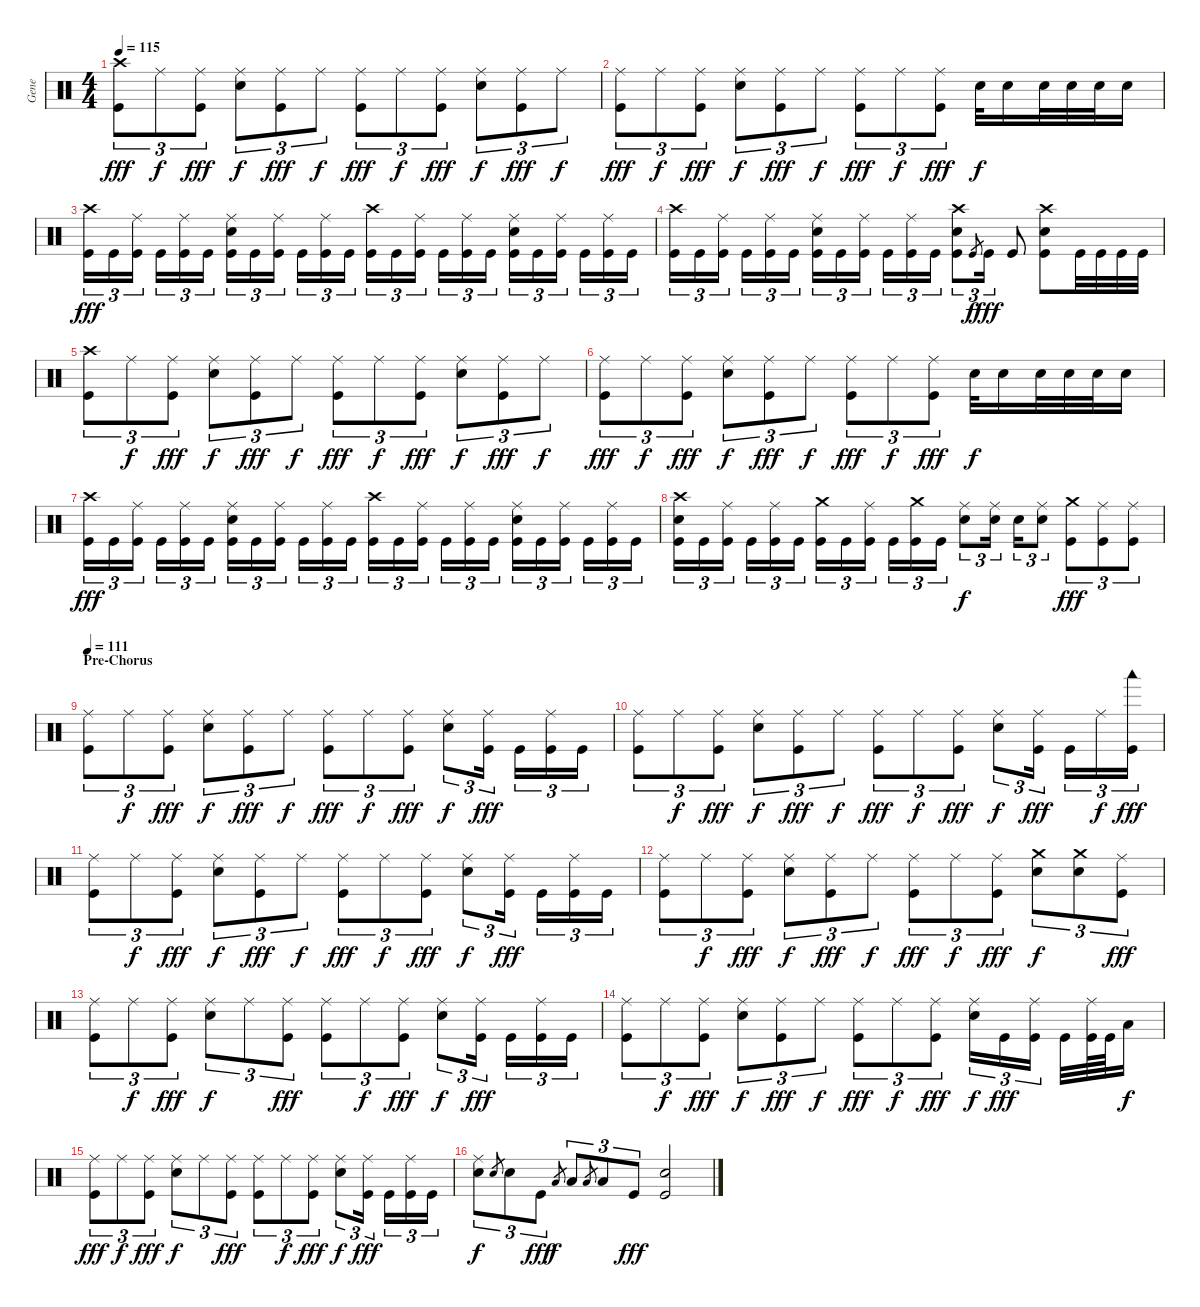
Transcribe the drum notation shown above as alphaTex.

\track ("Gene" "Gene") {instrument percussion}
\staff {score}
\articulation defaults
\ts (4 4)
\tempo 115
\clef neutral
\ks c
("Crash high (hit)" "Kick (hit)").8{tu (3 2) dy fff} "Ride (middle)".8{tu (3 2) dy f} ("Ride (middle)" "Kick (hit)").8{tu (3 2) dy fff} ("Ride (middle)" "Snare (hit) 2").8{tu (3 2) dy f} ("Ride (middle)" "Kick (hit)").8{tu (3 2) dy fff} "Ride (middle)".8{tu (3 2) dy f} ("Ride (middle)" "Kick (hit)").8{tu (3 2) dy fff} "Ride (middle)".8{tu (3 2) dy f} ("Ride (middle)" "Kick (hit)").8{tu (3 2) dy fff} ("Ride (middle)" "Snare (hit) 2").8{tu (3 2) dy f} ("Ride (middle)" "Kick (hit)").8{tu (3 2) dy fff} "Ride (middle)".8{tu (3 2) dy f} |
("Ride (middle)" "Kick (hit)").8{tu (3 2) dy fff} "Ride (middle)".8{tu (3 2) dy f} ("Ride (middle)" "Kick (hit)").8{tu (3 2) dy fff} ("Ride (middle)" "Snare (hit) 2").8{tu (3 2) dy f} ("Ride (middle)" "Kick (hit)").8{tu (3 2) dy fff} "Ride (middle)".8{tu (3 2) dy f} ("Ride (middle)" "Kick (hit)").8{tu (3 2) dy fff} "Ride (middle)".8{tu (3 2) dy f} ("Ride (middle)" "Kick (hit)").8{tu (3 2) dy fff} "Snare (hit) 2".32{dy f} "Snare (hit) 2".16 "Snare (hit) 2".32 "Snare (hit) 2".32 "Snare (hit) 2".32 "Snare (hit) 2".16 |
("Crash high (hit)" "Kick (hit)").16{tu (3 2) dy fff} "Kick (hit)".16{tu (3 2)} ("Ride (middle)" "Kick (hit)").16{tu (3 2)} "Kick (hit)".16{tu (3 2)} ("Ride (middle)" "Kick (hit)").16{tu (3 2)} "Kick (hit)".16{tu (3 2)} ("Ride (middle)" "Snare (hit) 2" "Kick (hit)").16{tu (3 2)} "Kick (hit)".16{tu (3 2)} ("Ride (middle)" "Kick (hit)").16{tu (3 2)} "Kick (hit)".16{tu (3 2)} ("Ride (middle)" "Kick (hit)").16{tu (3 2)} "Kick (hit)".16{tu (3 2)} ("Crash high (hit)" "Kick (hit)").16{tu (3 2)} "Kick (hit)".16{tu (3 2)} ("Ride (middle)" "Kick (hit)").16{tu (3 2)} "Kick (hit)".16{tu (3 2)} ("Ride (middle)" "Kick (hit)").16{tu (3 2)} "Kick (hit)".16{tu (3 2)} ("Ride (middle)" "Snare (hit) 2" "Kick (hit)").16{tu (3 2)} "Kick (hit)".16{tu (3 2)} ("Ride (middle)" "Kick (hit)").16{tu (3 2)} "Kick (hit)".16{tu (3 2)} ("Ride (middle)" "Kick (hit)").16{tu (3 2)} "Kick (hit)".16{tu (3 2)} |
("Crash high (hit)" "Kick (hit)").16{tu (3 2)} "Kick (hit)".16{tu (3 2)} ("Ride (middle)" "Kick (hit)").16{tu (3 2)} "Kick (hit)".16{tu (3 2)} ("Ride (middle)" "Kick (hit)").16{tu (3 2)} "Kick (hit)".16{tu (3 2)} ("Ride (middle)" "Snare (hit) 2" "Kick (hit)").16{tu (3 2)} "Kick (hit)".16{tu (3 2)} ("Ride (middle)" "Kick (hit)").16{tu (3 2)} "Kick (hit)".16{tu (3 2)} ("Ride (middle)" "Kick (hit)").16{tu (3 2)} "Kick (hit)".16{tu (3 2)} ("Crash high (hit)" "Snare (hit) 2" "Kick (hit)").8{tu (3 2)} "Kick (hit)".8{gr dy f} "Kick (hit)".16{tu (3 2) dy fff} "Kick (hit)".8 ("Crash high (hit)" "Snare (hit) 2" "Kick (hit)").8 "Kick (hit)".32 "Kick (hit)".32 "Kick (hit)".32 "Kick (hit)".32 |
("Crash high (hit)" "Kick (hit)").8{tu (3 2)} "Ride (middle)".8{tu (3 2) dy f} ("Ride (middle)" "Kick (hit)").8{tu (3 2) dy fff} ("Ride (middle)" "Snare (hit) 2").8{tu (3 2) dy f} ("Ride (middle)" "Kick (hit)").8{tu (3 2) dy fff} "Ride (middle)".8{tu (3 2) dy f} ("Ride (middle)" "Kick (hit)").8{tu (3 2) dy fff} "Ride (middle)".8{tu (3 2) dy f} ("Ride (middle)" "Kick (hit)").8{tu (3 2) dy fff} ("Ride (middle)" "Snare (hit) 2").8{tu (3 2) dy f} ("Ride (middle)" "Kick (hit)").8{tu (3 2) dy fff} "Ride (middle)".8{tu (3 2) dy f} |
("Ride (middle)" "Kick (hit)").8{tu (3 2) dy fff} "Ride (middle)".8{tu (3 2) dy f} ("Ride (middle)" "Kick (hit)").8{tu (3 2) dy fff} ("Ride (middle)" "Snare (hit) 2").8{tu (3 2) dy f} ("Ride (middle)" "Kick (hit)").8{tu (3 2) dy fff} "Ride (middle)".8{tu (3 2) dy f} ("Ride (middle)" "Kick (hit)").8{tu (3 2) dy fff} "Ride (middle)".8{tu (3 2) dy f} ("Ride (middle)" "Kick (hit)").8{tu (3 2) dy fff} "Snare (hit) 2".32{dy f} "Snare (hit) 2".16 "Snare (hit) 2".32 "Snare (hit) 2".32 "Snare (hit) 2".32 "Snare (hit) 2".16 |
("Crash high (hit)" "Kick (hit)").16{tu (3 2) dy fff} "Kick (hit)".16{tu (3 2)} ("Ride (middle)" "Kick (hit)").16{tu (3 2)} "Kick (hit)".16{tu (3 2)} ("Ride (middle)" "Kick (hit)").16{tu (3 2)} "Kick (hit)".16{tu (3 2)} ("Ride (middle)" "Snare (hit) 2" "Kick (hit)").16{tu (3 2)} "Kick (hit)".16{tu (3 2)} ("Ride (middle)" "Kick (hit)").16{tu (3 2)} "Kick (hit)".16{tu (3 2)} ("Ride (middle)" "Kick (hit)").16{tu (3 2)} "Kick (hit)".16{tu (3 2)} ("Crash high (hit)" "Kick (hit)").16{tu (3 2)} "Kick (hit)".16{tu (3 2)} ("Ride (middle)" "Kick (hit)").16{tu (3 2)} "Kick (hit)".16{tu (3 2)} ("Ride (middle)" "Kick (hit)").16{tu (3 2)} "Kick (hit)".16{tu (3 2)} ("Ride (middle)" "Snare (hit) 2" "Kick (hit)").16{tu (3 2)} "Kick (hit)".16{tu (3 2)} ("Ride (middle)" "Kick (hit)").16{tu (3 2)} "Kick (hit)".16{tu (3 2)} ("Ride (middle)" "Kick (hit)").16{tu (3 2)} "Kick (hit)".16{tu (3 2)} |
("Crash high (hit)" "Snare (hit) 2" "Kick (hit)").16{tu (3 2)} "Kick (hit)".16{tu (3 2)} ("Ride (middle)" "Kick (hit)").16{tu (3 2)} "Kick (hit)".16{tu (3 2)} ("Ride (middle)" "Kick (hit)").16{tu (3 2)} "Kick (hit)".16{tu (3 2)} ("Crash medium (hit)" "Kick (hit)").16{tu (3 2)} "Kick (hit)".16{tu (3 2)} ("Ride (middle)" "Kick (hit)").16{tu (3 2)} "Kick (hit)".16{tu (3 2)} ("Crash medium (hit)" "Kick (hit)").16{tu (3 2)} "Kick (hit)".16{tu (3 2)} ("Ride (middle)" "Snare (hit) 2").8{tu (3 2) dy f} ("Ride (middle)" "Snare (hit) 2").16{tu (3 2)} "Snare (hit) 2".16{tu (3 2)} ("Ride (middle)" "Snare (hit) 2").8{tu (3 2)} ("Crash medium (hit)" "Kick (hit)").8{tu (3 2) dy fff} ("Ride (middle)" "Kick (hit)").8{tu (3 2)} ("Ride (middle)" "Kick (hit)").8{tu (3 2)} |
\section ("" "Pre-Chorus")
\tempo 111
("Ride (middle)" "Kick (hit)").8{tu (3 2)} "Ride (middle)".8{tu (3 2) dy f} ("Ride (middle)" "Kick (hit)").8{tu (3 2) dy fff} ("Ride (middle)" "Snare (hit) 2").8{tu (3 2) dy f} ("Ride (middle)" "Kick (hit)").8{tu (3 2) dy fff} "Ride (middle)".8{tu (3 2) dy f} ("Ride (middle)" "Kick (hit)").8{tu (3 2) dy fff} "Ride (middle)".8{tu (3 2) dy f} ("Ride (middle)" "Kick (hit)").8{tu (3 2) dy fff} ("Ride (middle)" "Snare (hit) 2").8{tu (3 2) dy f} ("Ride (middle)" "Kick (hit)").16{tu (3 2) dy fff} "Kick (hit)".16{tu (3 2)} ("Ride (middle)" "Kick (hit)").16{tu (3 2)} "Kick (hit)".16{tu (3 2)} |
("Ride (middle)" "Kick (hit)").8{tu (3 2)} "Ride (middle)".8{tu (3 2) dy f} ("Ride (middle)" "Kick (hit)").8{tu (3 2) dy fff} ("Ride (middle)" "Snare (hit) 2").8{tu (3 2) dy f} ("Ride (middle)" "Kick (hit)").8{tu (3 2) dy fff} "Ride (middle)".8{tu (3 2) dy f} ("Ride (middle)" "Kick (hit)").8{tu (3 2) dy fff} "Ride (middle)".8{tu (3 2) dy f} ("Ride (middle)" "Kick (hit)").8{tu (3 2) dy fff} ("Ride (middle)" "Snare (hit) 2").8{tu (3 2) dy f} ("Ride (middle)" "Kick (hit)").16{tu (3 2) dy fff} "Kick (hit)".16{tu (3 2)} "Ride (middle)".16{tu (3 2) dy f} ("Woodblock low (hit)" "Kick (hit)").16{tu (3 2) dy fff} |
("Ride (middle)" "Kick (hit)").8{tu (3 2)} "Ride (middle)".8{tu (3 2) dy f} ("Ride (middle)" "Kick (hit)").8{tu (3 2) dy fff} ("Ride (middle)" "Snare (hit) 2").8{tu (3 2) dy f} ("Ride (middle)" "Kick (hit)").8{tu (3 2) dy fff} "Ride (middle)".8{tu (3 2) dy f} ("Ride (middle)" "Kick (hit)").8{tu (3 2) dy fff} "Ride (middle)".8{tu (3 2) dy f} ("Ride (middle)" "Kick (hit)").8{tu (3 2) dy fff} ("Ride (middle)" "Snare (hit) 2").8{tu (3 2) dy f} ("Ride (middle)" "Kick (hit)").16{tu (3 2) dy fff} "Kick (hit)".16{tu (3 2)} ("Ride (middle)" "Kick (hit)").16{tu (3 2)} "Kick (hit)".16{tu (3 2)} |
("Ride (middle)" "Kick (hit)").8{tu (3 2)} "Ride (middle)".8{tu (3 2) dy f} ("Ride (middle)" "Kick (hit)").8{tu (3 2) dy fff} ("Ride (middle)" "Snare (hit) 2").8{tu (3 2) dy f} ("Ride (middle)" "Kick (hit)").8{tu (3 2) dy fff} "Ride (middle)".8{tu (3 2) dy f} ("Ride (middle)" "Kick (hit)").8{tu (3 2) dy fff} "Ride (middle)".8{tu (3 2) dy f} ("Ride (middle)" "Kick (hit)").8{tu (3 2) dy fff} ("Crash medium (hit)" "Snare (hit) 2").8{tu (3 2) dy f} ("Crash medium (hit)" "Snare (hit) 2").8{tu (3 2)} ("Ride (middle)" "Kick (hit)").8{tu (3 2) dy fff} |
("Ride (middle)" "Kick (hit)").8{tu (3 2)} "Ride (middle)".8{tu (3 2) dy f} ("Ride (middle)" "Kick (hit)").8{tu (3 2) dy fff} ("Ride (middle)" "Snare (hit) 2").8{tu (3 2) dy f} "Ride (middle)".8{tu (3 2)} ("Ride (middle)" "Kick (hit)").8{tu (3 2) dy fff} ("Ride (middle)" "Kick (hit)").8{tu (3 2)} "Ride (middle)".8{tu (3 2) dy f} ("Ride (middle)" "Kick (hit)").8{tu (3 2) dy fff} ("Ride (middle)" "Snare (hit) 2").8{tu (3 2) dy f} ("Ride (middle)" "Kick (hit)").16{tu (3 2) dy fff} "Kick (hit)".16{tu (3 2)} ("Ride (middle)" "Kick (hit)").16{tu (3 2)} "Kick (hit)".16{tu (3 2)} |
("Ride (middle)" "Kick (hit)").8{tu (3 2)} "Ride (middle)".8{tu (3 2) dy f} ("Ride (middle)" "Kick (hit)").8{tu (3 2) dy fff} ("Ride (middle)" "Snare (hit) 2").8{tu (3 2) dy f} ("Ride (middle)" "Kick (hit)").8{tu (3 2) dy fff} "Ride (middle)".8{tu (3 2) dy f} ("Ride (middle)" "Kick (hit)").8{tu (3 2) dy fff} "Ride (middle)".8{tu (3 2) dy f} ("Ride (middle)" "Kick (hit)").8{tu (3 2) dy fff} ("Ride (middle)" "Snare (hit) 2").16{tu (3 2) dy f} "Kick (hit)".16{tu (3 2) dy fff} ("Ride (middle)" "Kick (hit)").16{tu (3 2)} "Kick (hit)".32 ("Ride (middle)" "Kick (hit)").64 "Kick (hit)".64 "Low Tom (hit)".16{dy f} |
("Ride (middle)" "Kick (hit)").8{tu (3 2) dy fff} "Ride (middle)".8{tu (3 2) dy f} ("Ride (middle)" "Kick (hit)").8{tu (3 2) dy fff} ("Ride (middle)" "Snare (hit) 2").8{tu (3 2) dy f} "Ride (middle)".8{tu (3 2)} ("Ride (middle)" "Kick (hit)").8{tu (3 2) dy fff} ("Ride (middle)" "Kick (hit)").8{tu (3 2)} "Ride (middle)".8{tu (3 2) dy f} ("Ride (middle)" "Kick (hit)").8{tu (3 2) dy fff} ("Ride (middle)" "Snare (hit) 2").8{tu (3 2) dy f} ("Ride (middle)" "Kick (hit)").16{tu (3 2) dy fff} "Kick (hit)".16{tu (3 2)} ("Ride (middle)" "Kick (hit)").16{tu (3 2)} "Kick (hit)".16{tu (3 2)} |
("Ride (middle)" "Snare (hit) 2").8{tu (3 2) dy f} "Snare (hit) 2".8{gr} "Snare (hit) 2".8{tu (3 2)} "Kick (hit)".8{tu (3 2) dy fff} "Low Tom (hit)".8{gr dy f} "Low Tom (hit)".8{tu (3 2)} "Low Tom (hit)".8{gr} "Low Tom (hit)".8{tu (3 2)} "Kick (hit)".8{tu (3 2) dy fff} ("Snare (hit) 2" "Kick (hit)").2
